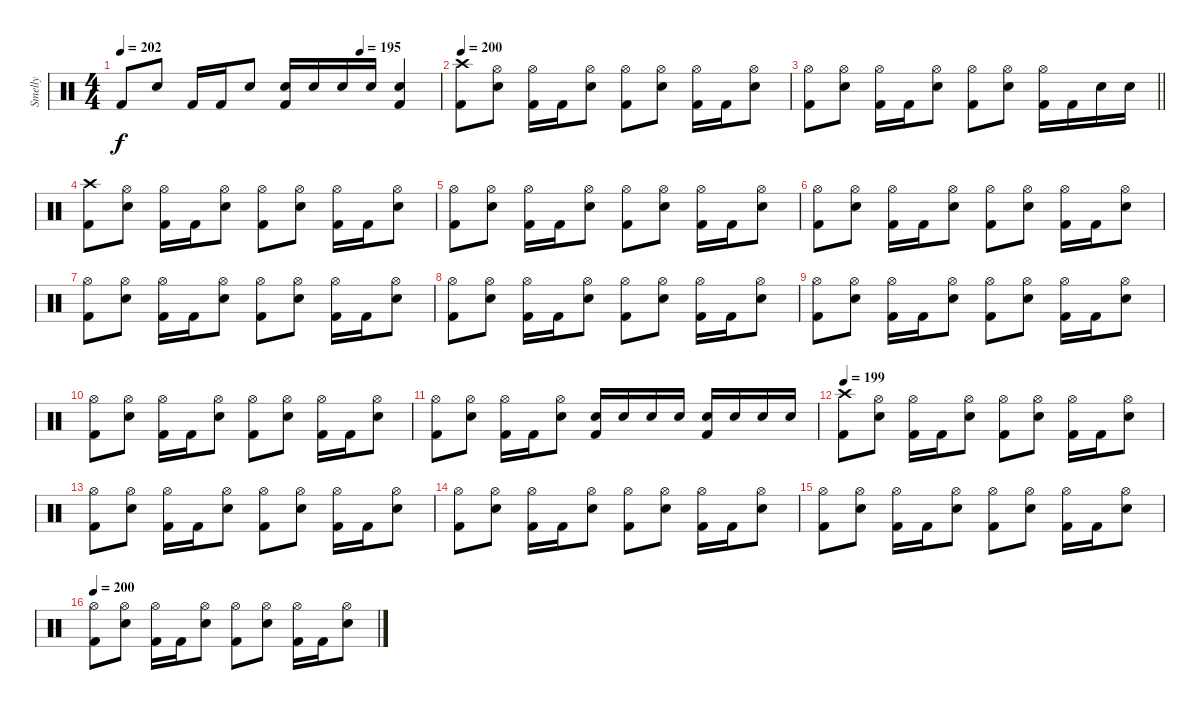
\track ("Smelly" "Smelly") {instrument percussion}
\staff {score}
\articulation defaults
\ts (4 4)
\tempo 202
\tempo (195 0.75)
\clef neutral
\ks c "Kick (hit) 2".8{dy f} "Electric Snare (hit)".8 "Kick (hit) 2".16 "Kick (hit) 2".16 "Electric Snare (hit)".8
("Electric Snare (hit)" "Kick (hit) 2").16 "Electric Snare (hit)".16 "Electric Snare (hit)".16 "Electric Snare (hit)".16 ("Electric Snare (hit)" "Kick (hit) 2").4 |
\tempo 200
("Crash high (hit)" "Kick (hit) 2").8 ("Hi-Hat (open)" "Electric Snare (hit)").8 ("Hi-Hat (open)" "Kick (hit) 2").16 "Kick (hit) 2".16 ("Hi-Hat (open)" "Electric Snare (hit)").8 ("Hi-Hat (open)" "Kick (hit) 2").8 ("Hi-Hat (open)" "Electric Snare (hit)").8 ("Hi-Hat (open)" "Kick (hit) 2").16 "Kick (hit) 2".16 ("Hi-Hat (open)" "Electric Snare (hit)").8 |
\barLineRight lightlight
("Hi-Hat (open)" "Kick (hit) 2").8 ("Hi-Hat (open)" "Electric Snare (hit)").8 ("Hi-Hat (open)" "Kick (hit) 2").16 "Kick (hit) 2".16 ("Hi-Hat (open)" "Electric Snare (hit)").8 ("Hi-Hat (open)" "Kick (hit) 2").8 ("Hi-Hat (open)" "Electric Snare (hit)").8 ("Hi-Hat (open)" "Kick (hit) 2").16 "Kick (hit) 2".16 "Electric Snare (hit)".16 "Electric Snare (hit)".16 |
\section ("" "")
("Crash high (hit)" "Kick (hit) 2").8 ("Hi-Hat (open)" "Electric Snare (hit)").8 ("Hi-Hat (open)" "Kick (hit) 2").16 "Kick (hit) 2".16 ("Hi-Hat (open)" "Electric Snare (hit)").8 ("Hi-Hat (open)" "Kick (hit) 2").8 ("Hi-Hat (open)" "Electric Snare (hit)").8 ("Hi-Hat (open)" "Kick (hit) 2").16 "Kick (hit) 2".16 ("Hi-Hat (open)" "Electric Snare (hit)").8 |
("Hi-Hat (open)" "Kick (hit) 2").8 ("Hi-Hat (open)" "Electric Snare (hit)").8 ("Hi-Hat (open)" "Kick (hit) 2").16 "Kick (hit) 2".16 ("Hi-Hat (open)" "Electric Snare (hit)").8 ("Hi-Hat (open)" "Kick (hit) 2").8 ("Hi-Hat (open)" "Electric Snare (hit)").8 ("Hi-Hat (open)" "Kick (hit) 2").16 "Kick (hit) 2".16 ("Hi-Hat (open)" "Electric Snare (hit)").8 |
("Hi-Hat (open)" "Kick (hit) 2").8 ("Hi-Hat (open)" "Electric Snare (hit)").8 ("Hi-Hat (open)" "Kick (hit) 2").16 "Kick (hit) 2".16 ("Hi-Hat (open)" "Electric Snare (hit)").8 ("Hi-Hat (open)" "Kick (hit) 2").8 ("Hi-Hat (open)" "Electric Snare (hit)").8 ("Hi-Hat (open)" "Kick (hit) 2").16 "Kick (hit) 2".16 ("Hi-Hat (open)" "Electric Snare (hit)").8 |
("Hi-Hat (open)" "Kick (hit) 2").8 ("Hi-Hat (open)" "Electric Snare (hit)").8 ("Hi-Hat (open)" "Kick (hit) 2").16 "Kick (hit) 2".16 ("Hi-Hat (open)" "Electric Snare (hit)").8 ("Hi-Hat (open)" "Kick (hit) 2").8 ("Hi-Hat (open)" "Electric Snare (hit)").8 ("Hi-Hat (open)" "Kick (hit) 2").16 "Kick (hit) 2".16 ("Hi-Hat (open)" "Electric Snare (hit)").8 |
("Hi-Hat (open)" "Kick (hit) 2").8 ("Hi-Hat (open)" "Electric Snare (hit)").8 ("Hi-Hat (open)" "Kick (hit) 2").16 "Kick (hit) 2".16 ("Hi-Hat (open)" "Electric Snare (hit)").8 ("Hi-Hat (open)" "Kick (hit) 2").8 ("Hi-Hat (open)" "Electric Snare (hit)").8 ("Hi-Hat (open)" "Kick (hit) 2").16 "Kick (hit) 2".16 ("Hi-Hat (open)" "Electric Snare (hit)").8 |
("Hi-Hat (open)" "Kick (hit) 2").8 ("Hi-Hat (open)" "Electric Snare (hit)").8 ("Hi-Hat (open)" "Kick (hit) 2").16 "Kick (hit) 2".16 ("Hi-Hat (open)" "Electric Snare (hit)").8 ("Hi-Hat (open)" "Kick (hit) 2").8 ("Hi-Hat (open)" "Electric Snare (hit)").8 ("Hi-Hat (open)" "Kick (hit) 2").16 "Kick (hit) 2".16 ("Hi-Hat (open)" "Electric Snare (hit)").8 |
("Hi-Hat (open)" "Kick (hit) 2").8 ("Hi-Hat (open)" "Electric Snare (hit)").8 ("Hi-Hat (open)" "Kick (hit) 2").16 "Kick (hit) 2".16 ("Hi-Hat (open)" "Electric Snare (hit)").8 ("Hi-Hat (open)" "Kick (hit) 2").8 ("Hi-Hat (open)" "Electric Snare (hit)").8 ("Hi-Hat (open)" "Kick (hit) 2").16 "Kick (hit) 2".16 ("Hi-Hat (open)" "Electric Snare (hit)").8 |
("Hi-Hat (open)" "Kick (hit) 2").8 ("Hi-Hat (open)" "Electric Snare (hit)").8 ("Hi-Hat (open)" "Kick (hit) 2").16 "Kick (hit) 2".16 ("Hi-Hat (open)" "Electric Snare (hit)").8 ("Electric Snare (hit)" "Kick (hit) 2").16 "Electric Snare (hit)".16 "Electric Snare (hit)".16 "Electric Snare (hit)".16 ("Electric Snare (hit)" "Kick (hit) 2").16 "Electric Snare (hit)".16 "Electric Snare (hit)".16 "Electric Snare (hit)".16 |
\tempo 199
("Crash high (hit)" "Kick (hit) 2").8 ("Hi-Hat (open)" "Electric Snare (hit)").8 ("Hi-Hat (open)" "Kick (hit) 2").16 "Kick (hit) 2".16 ("Hi-Hat (open)" "Electric Snare (hit)").8 ("Hi-Hat (open)" "Kick (hit) 2").8 ("Hi-Hat (open)" "Electric Snare (hit)").8 ("Hi-Hat (open)" "Kick (hit) 2").16 "Kick (hit) 2".16 ("Hi-Hat (open)" "Electric Snare (hit)").8 |
("Hi-Hat (open)" "Kick (hit) 2").8 ("Hi-Hat (open)" "Electric Snare (hit)").8 ("Hi-Hat (open)" "Kick (hit) 2").16 "Kick (hit) 2".16 ("Hi-Hat (open)" "Electric Snare (hit)").8 ("Hi-Hat (open)" "Kick (hit) 2").8 ("Hi-Hat (open)" "Electric Snare (hit)").8 ("Hi-Hat (open)" "Kick (hit) 2").16 "Kick (hit) 2".16 ("Hi-Hat (open)" "Electric Snare (hit)").8 |
("Hi-Hat (open)" "Kick (hit) 2").8 ("Hi-Hat (open)" "Electric Snare (hit)").8 ("Hi-Hat (open)" "Kick (hit) 2").16 "Kick (hit) 2".16 ("Hi-Hat (open)" "Electric Snare (hit)").8 ("Hi-Hat (open)" "Kick (hit) 2").8 ("Hi-Hat (open)" "Electric Snare (hit)").8 ("Hi-Hat (open)" "Kick (hit) 2").16 "Kick (hit) 2".16 ("Hi-Hat (open)" "Electric Snare (hit)").8 |
("Hi-Hat (open)" "Kick (hit) 2").8 ("Hi-Hat (open)" "Electric Snare (hit)").8 ("Hi-Hat (open)" "Kick (hit) 2").16 "Kick (hit) 2".16 ("Hi-Hat (open)" "Electric Snare (hit)").8 ("Hi-Hat (open)" "Kick (hit) 2").8 ("Hi-Hat (open)" "Electric Snare (hit)").8 ("Hi-Hat (open)" "Kick (hit) 2").16 "Kick (hit) 2".16 ("Hi-Hat (open)" "Electric Snare (hit)").8 |
\tempo 200
("Hi-Hat (open)" "Kick (hit) 2").8 ("Hi-Hat (open)" "Electric Snare (hit)").8 ("Hi-Hat (open)" "Kick (hit) 2").16 "Kick (hit) 2".16 ("Hi-Hat (open)" "Electric Snare (hit)").8 ("Hi-Hat (open)" "Kick (hit) 2").8 ("Hi-Hat (open)" "Electric Snare (hit)").8 ("Hi-Hat (open)" "Kick (hit) 2").16 "Kick (hit) 2".16 ("Hi-Hat (open)" "Electric Snare (hit)").8
